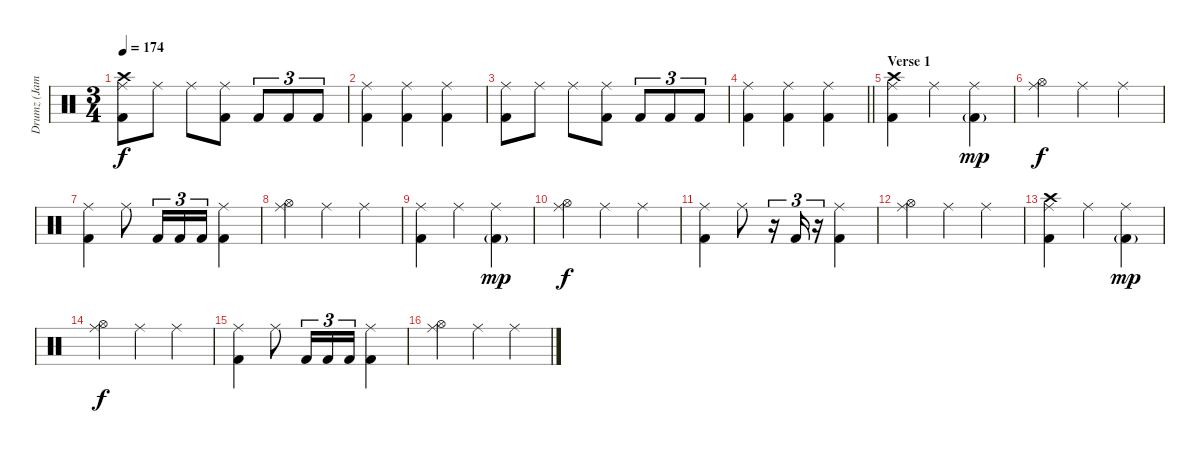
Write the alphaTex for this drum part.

\track ("Drumz (James Kottak)" "Drumz (Jam") {instrument percussion}
\staff {score}
\articulation defaults
\ts (3 4)
\tempo 174
\clef neutral
\ks c
("Ride (middle)" "Crash high (hit)" "Kick (hit) 2").8{dy f} "Ride (middle)".8 "Ride (middle)".8 ("Ride (middle)" "Kick (hit) 2").8 "Kick (hit) 2".8{tu (3 2)} "Kick (hit) 2".8{tu (3 2)} "Kick (hit) 2".8{tu (3 2)} |
("Ride (middle)" "Kick (hit) 2").4 ("Kick (hit) 2" "Ride (middle)").4 ("Ride (middle)" "Kick (hit) 2").4 |
("Ride (middle)" "Kick (hit) 2").8 "Ride (middle)".8 "Ride (middle)".8 ("Ride (middle)" "Kick (hit) 2").8 "Kick (hit) 2".8{tu (3 2)} "Kick (hit) 2".8{tu (3 2)} "Kick (hit) 2".8{tu (3 2)} |
\barLineRight lightlight
("Ride (middle)" "Kick (hit) 2").4 ("Kick (hit) 2" "Ride (middle)").4 ("Ride (middle)" "Kick (hit) 2").4 |
\section ("" "Verse 1")
("Ride (middle)" "Crash high (hit)" "Kick (hit) 2").4 "Ride (middle)".4 ("Ride (middle)" "Kick (hit) 2"{g}).4{dy mp} |
("Ride (middle)" "Hi-Hat (open)").4{dy f} "Ride (middle)".4 "Ride (middle)".4 |
("Ride (middle)" "Kick (hit) 2").4 "Ride (middle)".8 "Kick (hit) 2".16{tu (3 2)} "Kick (hit) 2".16{tu (3 2)} "Kick (hit) 2".16{tu (3 2)} ("Ride (middle)" "Kick (hit) 2").4 |
("Ride (middle)" "Hi-Hat (open)").4 "Ride (middle)".4 "Ride (middle)".4 |
("Ride (middle)" "Kick (hit) 2").4 "Ride (middle)".4 ("Ride (middle)" "Kick (hit) 2"{g}).4{dy mp} |
("Ride (middle)" "Hi-Hat (open)").4{dy f} "Ride (middle)".4 "Ride (middle)".4 |
("Ride (middle)" "Kick (hit) 2").4 "Ride (middle)".8 r.16{tu (3 2)} "Kick (hit) 2".16{tu (3 2)} r.16{tu (3 2)} ("Ride (middle)" "Kick (hit) 2").4 |
("Ride (middle)" "Hi-Hat (open)").4 "Ride (middle)".4 "Ride (middle)".4 |
("Ride (middle)" "Crash high (hit)" "Kick (hit) 2").4 "Ride (middle)".4 ("Ride (middle)" "Kick (hit) 2"{g}).4{dy mp} |
("Ride (middle)" "Hi-Hat (open)").4{dy f} "Ride (middle)".4 "Ride (middle)".4 |
("Ride (middle)" "Kick (hit) 2").4 "Ride (middle)".8 "Kick (hit) 2".16{tu (3 2)} "Kick (hit) 2".16{tu (3 2)} "Kick (hit) 2".16{tu (3 2)} ("Ride (middle)" "Kick (hit) 2").4 |
("Ride (middle)" "Hi-Hat (open)").4 "Ride (middle)".4 "Ride (middle)".4
